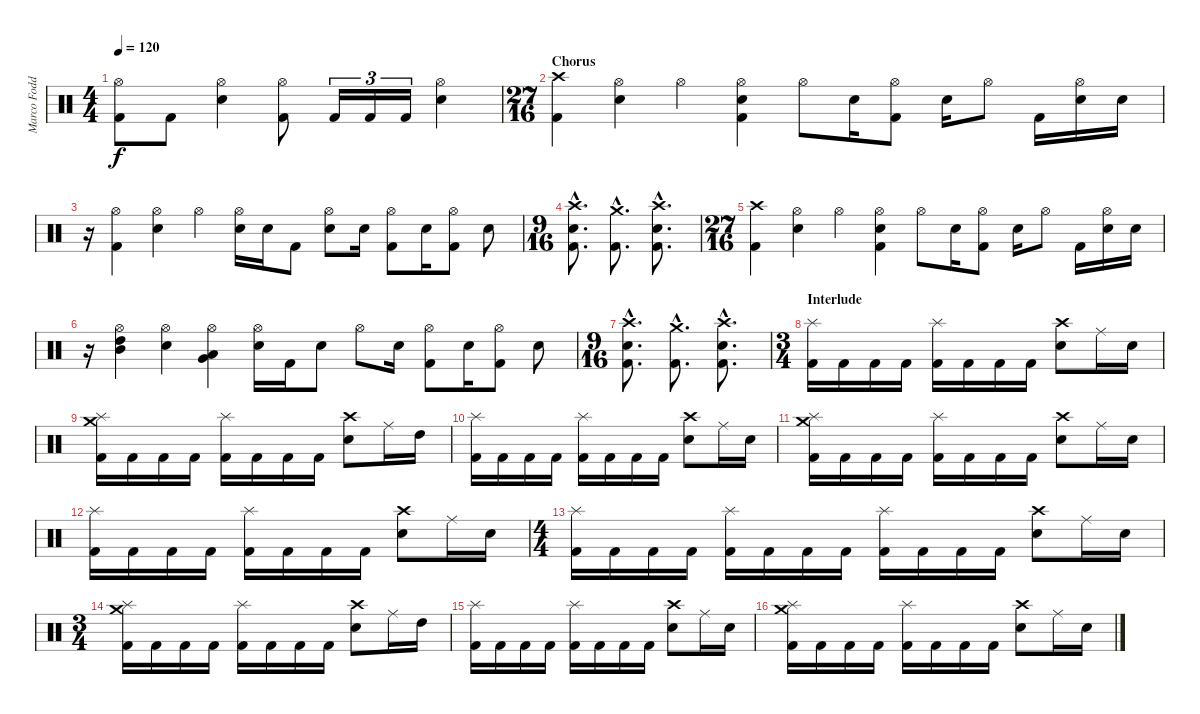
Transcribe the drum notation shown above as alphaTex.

\track ("Marco Foddis " "Marco Fodd") {instrument percussion}
\staff {score}
\articulation defaults
\ts (4 4)
\tempo 120
\clef neutral
\ks c
("Hi-Hat (open)" "Kick (hit) 2").8{dy f} "Kick (hit) 2".8 ("Hi-Hat (open)" "Electric Snare (hit)").4 ("Hi-Hat (open)" "Kick (hit) 2").8 "Kick (hit) 2".16{tu (3 2)} "Kick (hit) 2".16{tu (3 2)} "Kick (hit) 2".16{tu (3 2)} ("Hi-Hat (open)" "Electric Snare (hit)").4 |
\ts (27 16)
\section ("" "Chorus")
("Crash high (hit)" "Kick (hit) 2").4 ("Hi-Hat (open)" "Electric Snare (hit)").4 "Hi-Hat (open)".4 ("Hi-Hat (open)" "Electric Snare (hit)" "Kick (hit) 2").4 "Hi-Hat (open)".8 "Electric Snare (hit)".16 ("Hi-Hat (open)" "Kick (hit) 2").8 "Electric Snare (hit)".16 "Hi-Hat (open)".8 "Kick (hit) 2".16 ("Hi-Hat (open)" "Electric Snare (hit)").16 "Electric Snare (hit)".16 |
r.16 ("Hi-Hat (open)" "Kick (hit) 2").4 ("Hi-Hat (open)" "Electric Snare (hit)").4 "Hi-Hat (open)".4 ("Hi-Hat (open)" "Electric Snare (hit)").16 "Electric Snare (hit)".16 "Kick (hit) 2".8 ("Hi-Hat (open)" "Electric Snare (hit)").8 "Electric Snare (hit)".16 ("Hi-Hat (open)" "Kick (hit) 2").8 "Electric Snare (hit)".16 ("Hi-Hat (open)" "Kick (hit) 2").8 "Electric Snare (hit)".8 |
\ts (9 16)
("Crash high (hit)"{hac} "Electric Snare (hit)"{hac} "Kick (hit) 2"{hac}).8{d} ("Crash medium (hit)"{hac} "Kick (hit) 2"{hac}).8{d} ("Crash high (hit)"{hac} "Electric Snare (hit)"{hac} "Kick (hit) 2"{hac}).8{d} |
\ts (27 16)
("Crash high (hit)" "Kick (hit) 2").4 ("Hi-Hat (open)" "Electric Snare (hit)").4 "Hi-Hat (open)".4 ("Hi-Hat (open)" "Electric Snare (hit)" "Kick (hit) 2").4 "Hi-Hat (open)".8 "Electric Snare (hit)".16 ("Hi-Hat (open)" "Kick (hit) 2").8 "Electric Snare (hit)".16 "Hi-Hat (open)".8 "Kick (hit) 2".16 ("Hi-Hat (open)" "Electric Snare (hit)").16 "Electric Snare (hit)".16 |
r.16 ("Hi-Hat (open)" "High Tom (hit)" "Mid Tom (hit)").4 ("Hi-Hat (open)" "Electric Snare (hit)").4 ("Hi-Hat (open)" "Very Low Tom (hit)" "Low Tom (hit)").4 ("Hi-Hat (open)" "Electric Snare (hit)").16 "Kick (hit) 2".16 "Electric Snare (hit)".8 "Hi-Hat (open)".8 "Electric Snare (hit)".16 ("Hi-Hat (open)" "Kick (hit) 2").8 "Electric Snare (hit)".16 ("Hi-Hat (open)" "Kick (hit) 2").8 "Electric Snare (hit)".8 |
\ts (9 16)
("Crash high (hit)"{hac} "Electric Snare (hit)"{hac} "Kick (hit) 2"{hac}).8{d} ("Crash medium (hit)"{hac} "Kick (hit) 2"{hac}).8{d} ("Crash high (hit)"{hac} "Electric Snare (hit)"{hac} "Kick (hit) 2"{hac}).8{d} |
\ts (3 4)
\section ("" "Interlude")
("Splash (hit)" "Kick (hit) 2").16 "Kick (hit) 2".16 "Kick (hit) 2".16 "Kick (hit) 2".16 ("Splash (hit)" "Kick (hit) 2").16 "Kick (hit) 2".16 "Kick (hit) 2".16 "Kick (hit) 2".16 ("Crash high (hit)" "Electric Snare (hit)").8 "Ride (middle)".16 "Electric Snare (hit)".16 |
("Crash medium (hit)" "Splash (hit)" "Kick (hit) 2").16 "Kick (hit) 2".16 "Kick (hit) 2".16 "Kick (hit) 2".16 ("Splash (hit)" "Kick (hit) 2").16 "Kick (hit) 2".16 "Kick (hit) 2".16 "Kick (hit) 2".16 ("Crash high (hit)" "Electric Snare (hit)").8 "Ride (middle)".16 "High Tom (hit)".16 |
("Splash (hit)" "Kick (hit) 2").16 "Kick (hit) 2".16 "Kick (hit) 2".16 "Kick (hit) 2".16 ("Splash (hit)" "Kick (hit) 2").16 "Kick (hit) 2".16 "Kick (hit) 2".16 "Kick (hit) 2".16 ("Crash high (hit)" "Electric Snare (hit)").8 "Ride (middle)".16 "Electric Snare (hit)".16 |
("Crash medium (hit)" "Splash (hit)" "Kick (hit) 2").16 "Kick (hit) 2".16 "Kick (hit) 2".16 "Kick (hit) 2".16 ("Splash (hit)" "Kick (hit) 2").16 "Kick (hit) 2".16 "Kick (hit) 2".16 "Kick (hit) 2".16 ("Crash high (hit)" "Electric Snare (hit)").8 "Ride (middle)".16 "Electric Snare (hit)".16 |
("Splash (hit)" "Kick (hit) 2").16 "Kick (hit) 2".16 "Kick (hit) 2".16 "Kick (hit) 2".16 ("Splash (hit)" "Kick (hit) 2").16 "Kick (hit) 2".16 "Kick (hit) 2".16 "Kick (hit) 2".16 ("Crash high (hit)" "Electric Snare (hit)").8 "Ride (middle)".16 "Electric Snare (hit)".16 |
\ts (4 4)
("Splash (hit)" "Kick (hit) 2").16 "Kick (hit) 2".16 "Kick (hit) 2".16 "Kick (hit) 2".16 ("Splash (hit)" "Kick (hit) 2").16 "Kick (hit) 2".16 "Kick (hit) 2".16 "Kick (hit) 2".16 ("Splash (hit)" "Kick (hit) 2").16 "Kick (hit) 2".16 "Kick (hit) 2".16 "Kick (hit) 2".16 ("Crash high (hit)" "Electric Snare (hit)").8 "Ride (middle)".16 "Electric Snare (hit)".16 |
\ts (3 4)
("Crash medium (hit)" "Splash (hit)" "Kick (hit) 2").16 "Kick (hit) 2".16 "Kick (hit) 2".16 "Kick (hit) 2".16 ("Splash (hit)" "Kick (hit) 2").16 "Kick (hit) 2".16 "Kick (hit) 2".16 "Kick (hit) 2".16 ("Crash high (hit)" "Electric Snare (hit)").8 "Ride (middle)".16 "High Tom (hit)".16 |
("Splash (hit)" "Kick (hit) 2").16 "Kick (hit) 2".16 "Kick (hit) 2".16 "Kick (hit) 2".16 ("Splash (hit)" "Kick (hit) 2").16 "Kick (hit) 2".16 "Kick (hit) 2".16 "Kick (hit) 2".16 ("Crash high (hit)" "Electric Snare (hit)").8 "Ride (middle)".16 "Electric Snare (hit)".16 |
("Crash medium (hit)" "Splash (hit)" "Kick (hit) 2").16 "Kick (hit) 2".16 "Kick (hit) 2".16 "Kick (hit) 2".16 ("Splash (hit)" "Kick (hit) 2").16 "Kick (hit) 2".16 "Kick (hit) 2".16 "Kick (hit) 2".16 ("Crash high (hit)" "Electric Snare (hit)").8 "Ride (middle)".16 "Electric Snare (hit)".16
